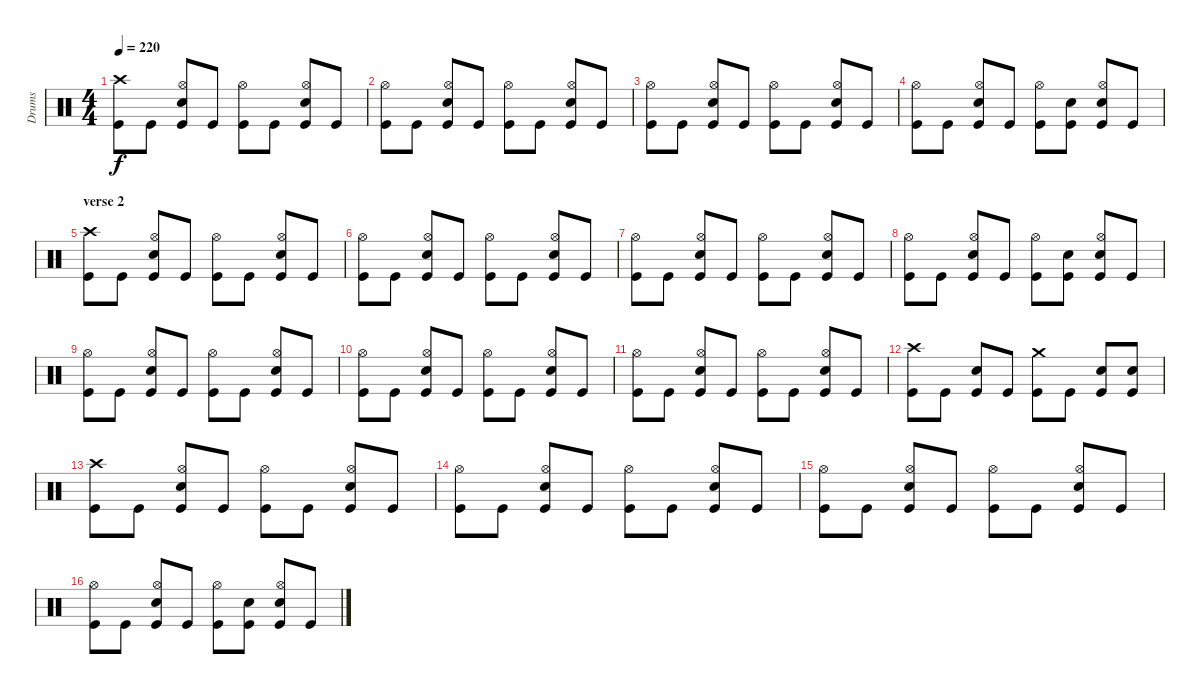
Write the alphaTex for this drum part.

\track ("Drums" "Drums") {instrument percussion}
\staff {score}
\articulation defaults
\ts (4 4)
\tempo 220
\clef neutral
\ks c
("Crash high (hit)" "Kick (hit)").8{dy f} "Kick (hit)".8 ("Hi-Hat (open)" "Electric Snare (hit)" "Kick (hit)").8 "Kick (hit)".8 ("Hi-Hat (open)" "Kick (hit)").8 "Kick (hit)".8 ("Hi-Hat (open)" "Electric Snare (hit)" "Kick (hit)").8 "Kick (hit)".8 |
("Hi-Hat (open)" "Kick (hit)").8 "Kick (hit)".8 ("Hi-Hat (open)" "Electric Snare (hit)" "Kick (hit)").8 "Kick (hit)".8 ("Hi-Hat (open)" "Kick (hit)").8 "Kick (hit)".8 ("Hi-Hat (open)" "Electric Snare (hit)" "Kick (hit)").8 "Kick (hit)".8 |
("Hi-Hat (open)" "Kick (hit)").8 "Kick (hit)".8 ("Hi-Hat (open)" "Electric Snare (hit)" "Kick (hit)").8 "Kick (hit)".8 ("Hi-Hat (open)" "Kick (hit)").8 "Kick (hit)".8 ("Hi-Hat (open)" "Electric Snare (hit)" "Kick (hit)").8 "Kick (hit)".8 |
("Hi-Hat (open)" "Kick (hit)").8 "Kick (hit)".8 ("Hi-Hat (open)" "Electric Snare (hit)" "Kick (hit)").8 "Kick (hit)".8 ("Hi-Hat (open)" "Kick (hit)").8 ("Electric Snare (hit)" "Kick (hit)").8 ("Hi-Hat (open)" "Electric Snare (hit)" "Kick (hit)").8 "Kick (hit)".8 |
\section ("" "verse 2")
("Crash high (hit)" "Kick (hit)").8 "Kick (hit)".8 ("Hi-Hat (open)" "Electric Snare (hit)" "Kick (hit)").8 "Kick (hit)".8 ("Hi-Hat (open)" "Kick (hit)").8 "Kick (hit)".8 ("Hi-Hat (open)" "Electric Snare (hit)" "Kick (hit)").8 "Kick (hit)".8 |
("Hi-Hat (open)" "Kick (hit)").8 "Kick (hit)".8 ("Hi-Hat (open)" "Electric Snare (hit)" "Kick (hit)").8 "Kick (hit)".8 ("Hi-Hat (open)" "Kick (hit)").8 "Kick (hit)".8 ("Hi-Hat (open)" "Electric Snare (hit)" "Kick (hit)").8 "Kick (hit)".8 |
("Hi-Hat (open)" "Kick (hit)").8 "Kick (hit)".8 ("Hi-Hat (open)" "Electric Snare (hit)" "Kick (hit)").8 "Kick (hit)".8 ("Hi-Hat (open)" "Kick (hit)").8 "Kick (hit)".8 ("Hi-Hat (open)" "Electric Snare (hit)" "Kick (hit)").8 "Kick (hit)".8 |
("Hi-Hat (open)" "Kick (hit)").8 "Kick (hit)".8 ("Hi-Hat (open)" "Electric Snare (hit)" "Kick (hit)").8 "Kick (hit)".8 ("Hi-Hat (open)" "Kick (hit)").8 ("Electric Snare (hit)" "Kick (hit)").8 ("Hi-Hat (open)" "Electric Snare (hit)" "Kick (hit)").8 "Kick (hit)".8 |
("Hi-Hat (open)" "Kick (hit)").8 "Kick (hit)".8 ("Hi-Hat (open)" "Electric Snare (hit)" "Kick (hit)").8 "Kick (hit)".8 ("Hi-Hat (open)" "Kick (hit)").8 "Kick (hit)".8 ("Hi-Hat (open)" "Electric Snare (hit)" "Kick (hit)").8 "Kick (hit)".8 |
("Hi-Hat (open)" "Kick (hit)").8 "Kick (hit)".8 ("Hi-Hat (open)" "Electric Snare (hit)" "Kick (hit)").8 "Kick (hit)".8 ("Hi-Hat (open)" "Kick (hit)").8 "Kick (hit)".8 ("Hi-Hat (open)" "Electric Snare (hit)" "Kick (hit)").8 "Kick (hit)".8 |
("Hi-Hat (open)" "Kick (hit)").8 "Kick (hit)".8 ("Hi-Hat (open)" "Electric Snare (hit)" "Kick (hit)").8 "Kick (hit)".8 ("Hi-Hat (open)" "Kick (hit)").8 "Kick (hit)".8 ("Hi-Hat (open)" "Electric Snare (hit)" "Kick (hit)").8 "Kick (hit)".8 |
("Crash high (hit)" "Kick (hit)").8 "Kick (hit)".8 ("Electric Snare (hit)" "Kick (hit)").8 "Kick (hit)".8 ("Crash medium (hit)" "Kick (hit)").8 "Kick (hit)".8 ("Electric Snare (hit)" "Kick (hit)").8 ("Electric Snare (hit)" "Kick (hit)").8 |
("Crash high (hit)" "Kick (hit)").8 "Kick (hit)".8 ("Hi-Hat (open)" "Electric Snare (hit)" "Kick (hit)").8 "Kick (hit)".8 ("Hi-Hat (open)" "Kick (hit)").8 "Kick (hit)".8 ("Hi-Hat (open)" "Electric Snare (hit)" "Kick (hit)").8 "Kick (hit)".8 |
("Hi-Hat (open)" "Kick (hit)").8 "Kick (hit)".8 ("Hi-Hat (open)" "Electric Snare (hit)" "Kick (hit)").8 "Kick (hit)".8 ("Hi-Hat (open)" "Kick (hit)").8 "Kick (hit)".8 ("Hi-Hat (open)" "Electric Snare (hit)" "Kick (hit)").8 "Kick (hit)".8 |
("Hi-Hat (open)" "Kick (hit)").8 "Kick (hit)".8 ("Hi-Hat (open)" "Electric Snare (hit)" "Kick (hit)").8 "Kick (hit)".8 ("Hi-Hat (open)" "Kick (hit)").8 "Kick (hit)".8 ("Hi-Hat (open)" "Electric Snare (hit)" "Kick (hit)").8 "Kick (hit)".8 |
("Hi-Hat (open)" "Kick (hit)").8 "Kick (hit)".8 ("Hi-Hat (open)" "Electric Snare (hit)" "Kick (hit)").8 "Kick (hit)".8 ("Hi-Hat (open)" "Kick (hit)").8 ("Electric Snare (hit)" "Kick (hit)").8 ("Hi-Hat (open)" "Electric Snare (hit)" "Kick (hit)").8 "Kick (hit)".8
